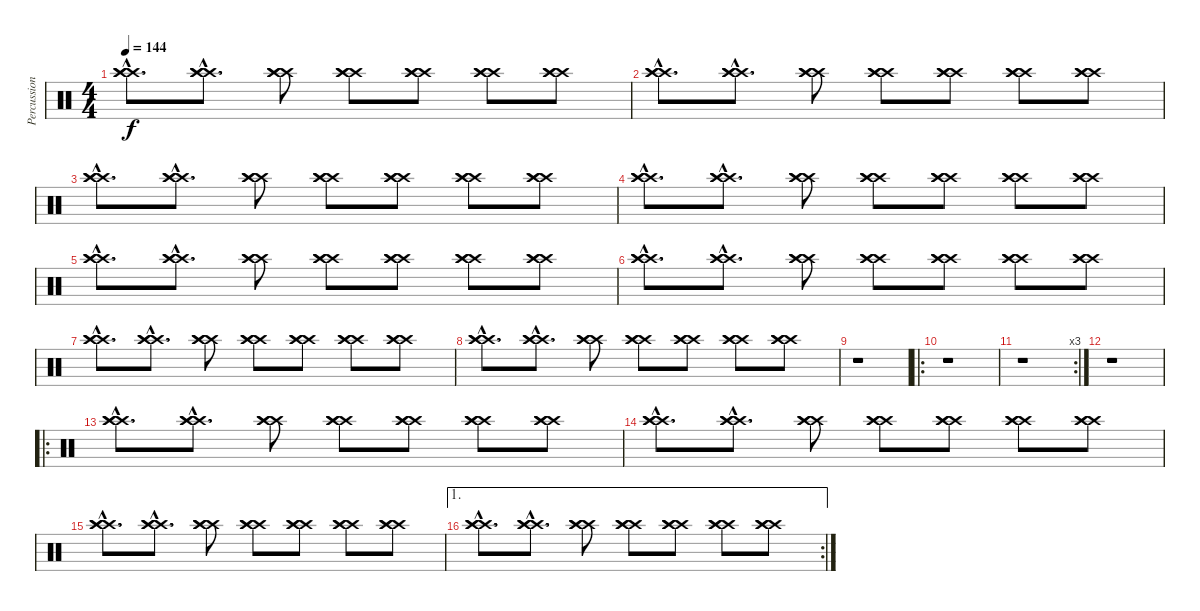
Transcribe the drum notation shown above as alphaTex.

\track ("Percussion 2" "Percussion") {instrument percussion}
\staff {score}
\articulation defaults
\ts (4 4)
\tempo 144
\clef neutral
\ks c
("Crash high (hit)"{hac} "Crash high (hit)"{hac} "Crash high (hit)"{hac}).8{d dy f} ("Crash high (hit)"{hac} "Crash high (hit)" "Crash high (hit)").8{d} ("Crash high (hit)" "Crash high (hit)" "Crash high (hit)").8 ("Crash high (hit)" "Crash high (hit)" "Crash high (hit)").8 ("Crash high (hit)" "Crash high (hit)" "Crash high (hit)").8 ("Crash high (hit)" "Crash high (hit)" "Crash high (hit)").8 ("Crash high (hit)" "Crash high (hit)" "Crash high (hit)").8 |
("Crash high (hit)"{hac} "Crash high (hit)"{hac} "Crash high (hit)"{hac}).8{d} ("Crash high (hit)"{hac} "Crash high (hit)" "Crash high (hit)").8{d} ("Crash high (hit)" "Crash high (hit)" "Crash high (hit)").8 ("Crash high (hit)" "Crash high (hit)" "Crash high (hit)").8 ("Crash high (hit)" "Crash high (hit)" "Crash high (hit)").8 ("Crash high (hit)" "Crash high (hit)" "Crash high (hit)").8 ("Crash high (hit)" "Crash high (hit)" "Crash high (hit)").8 |
("Crash high (hit)"{hac} "Crash high (hit)"{hac} "Crash high (hit)"{hac}).8{d} ("Crash high (hit)"{hac} "Crash high (hit)" "Crash high (hit)").8{d} ("Crash high (hit)" "Crash high (hit)" "Crash high (hit)").8 ("Crash high (hit)" "Crash high (hit)" "Crash high (hit)").8 ("Crash high (hit)" "Crash high (hit)" "Crash high (hit)").8 ("Crash high (hit)" "Crash high (hit)" "Crash high (hit)").8 ("Crash high (hit)" "Crash high (hit)" "Crash high (hit)").8 |
("Crash high (hit)"{hac} "Crash high (hit)"{hac} "Crash high (hit)"{hac}).8{d} ("Crash high (hit)"{hac} "Crash high (hit)" "Crash high (hit)").8{d} ("Crash high (hit)" "Crash high (hit)" "Crash high (hit)").8 ("Crash high (hit)" "Crash high (hit)" "Crash high (hit)").8 ("Crash high (hit)" "Crash high (hit)" "Crash high (hit)").8 ("Crash high (hit)" "Crash high (hit)" "Crash high (hit)").8 ("Crash high (hit)" "Crash high (hit)" "Crash high (hit)").8 |
("Crash high (hit)"{hac} "Crash high (hit)"{hac} "Crash high (hit)"{hac}).8{d} ("Crash high (hit)"{hac} "Crash high (hit)" "Crash high (hit)").8{d} ("Crash high (hit)" "Crash high (hit)" "Crash high (hit)").8 ("Crash high (hit)" "Crash high (hit)" "Crash high (hit)").8 ("Crash high (hit)" "Crash high (hit)" "Crash high (hit)").8 ("Crash high (hit)" "Crash high (hit)" "Crash high (hit)").8 ("Crash high (hit)" "Crash high (hit)" "Crash high (hit)").8 |
("Crash high (hit)"{hac} "Crash high (hit)"{hac} "Crash high (hit)"{hac}).8{d} ("Crash high (hit)"{hac} "Crash high (hit)" "Crash high (hit)").8{d} ("Crash high (hit)" "Crash high (hit)" "Crash high (hit)").8 ("Crash high (hit)" "Crash high (hit)" "Crash high (hit)").8 ("Crash high (hit)" "Crash high (hit)" "Crash high (hit)").8 ("Crash high (hit)" "Crash high (hit)" "Crash high (hit)").8 ("Crash high (hit)" "Crash high (hit)" "Crash high (hit)").8 |
("Crash high (hit)"{hac} "Crash high (hit)"{hac} "Crash high (hit)"{hac}).8{d} ("Crash high (hit)"{hac} "Crash high (hit)" "Crash high (hit)").8{d} ("Crash high (hit)" "Crash high (hit)" "Crash high (hit)").8 ("Crash high (hit)" "Crash high (hit)" "Crash high (hit)").8 ("Crash high (hit)" "Crash high (hit)" "Crash high (hit)").8 ("Crash high (hit)" "Crash high (hit)" "Crash high (hit)").8 ("Crash high (hit)" "Crash high (hit)" "Crash high (hit)").8 |
("Crash high (hit)"{hac} "Crash high (hit)"{hac} "Crash high (hit)"{hac}).8{d} ("Crash high (hit)"{hac} "Crash high (hit)" "Crash high (hit)").8{d} ("Crash high (hit)" "Crash high (hit)" "Crash high (hit)").8 ("Crash high (hit)" "Crash high (hit)" "Crash high (hit)").8 ("Crash high (hit)" "Crash high (hit)" "Crash high (hit)").8 ("Crash high (hit)" "Crash high (hit)" "Crash high (hit)").8 ("Crash high (hit)" "Crash high (hit)" "Crash high (hit)").8 |
r.1 |
\ro
r.1 |
\rc 3
r.1 |
r.1 |
\ro
("Crash high (hit)"{hac} "Crash high (hit)"{hac} "Crash high (hit)"{hac}).8{d} ("Crash high (hit)"{hac} "Crash high (hit)" "Crash high (hit)").8{d} ("Crash high (hit)" "Crash high (hit)" "Crash high (hit)").8 ("Crash high (hit)" "Crash high (hit)" "Crash high (hit)").8 ("Crash high (hit)" "Crash high (hit)" "Crash high (hit)").8 ("Crash high (hit)" "Crash high (hit)" "Crash high (hit)").8 ("Crash high (hit)" "Crash high (hit)" "Crash high (hit)").8 |
("Crash high (hit)"{hac} "Crash high (hit)"{hac} "Crash high (hit)"{hac}).8{d} ("Crash high (hit)"{hac} "Crash high (hit)" "Crash high (hit)").8{d} ("Crash high (hit)" "Crash high (hit)" "Crash high (hit)").8 ("Crash high (hit)" "Crash high (hit)" "Crash high (hit)").8 ("Crash high (hit)" "Crash high (hit)" "Crash high (hit)").8 ("Crash high (hit)" "Crash high (hit)" "Crash high (hit)").8 ("Crash high (hit)" "Crash high (hit)" "Crash high (hit)").8 |
("Crash high (hit)"{hac} "Crash high (hit)"{hac} "Crash high (hit)"{hac}).8{d} ("Crash high (hit)"{hac} "Crash high (hit)" "Crash high (hit)").8{d} ("Crash high (hit)" "Crash high (hit)" "Crash high (hit)").8 ("Crash high (hit)" "Crash high (hit)" "Crash high (hit)").8 ("Crash high (hit)" "Crash high (hit)" "Crash high (hit)").8 ("Crash high (hit)" "Crash high (hit)" "Crash high (hit)").8 ("Crash high (hit)" "Crash high (hit)" "Crash high (hit)").8 |
\ae 1
\rc 2
("Crash high (hit)"{hac} "Crash high (hit)"{hac} "Crash high (hit)"{hac}).8{d} ("Crash high (hit)"{hac} "Crash high (hit)" "Crash high (hit)").8{d} ("Crash high (hit)" "Crash high (hit)" "Crash high (hit)").8 ("Crash high (hit)" "Crash high (hit)" "Crash high (hit)").8 ("Crash high (hit)" "Crash high (hit)" "Crash high (hit)").8 ("Crash high (hit)" "Crash high (hit)" "Crash high (hit)").8 ("Crash high (hit)" "Crash high (hit)" "Crash high (hit)").8
